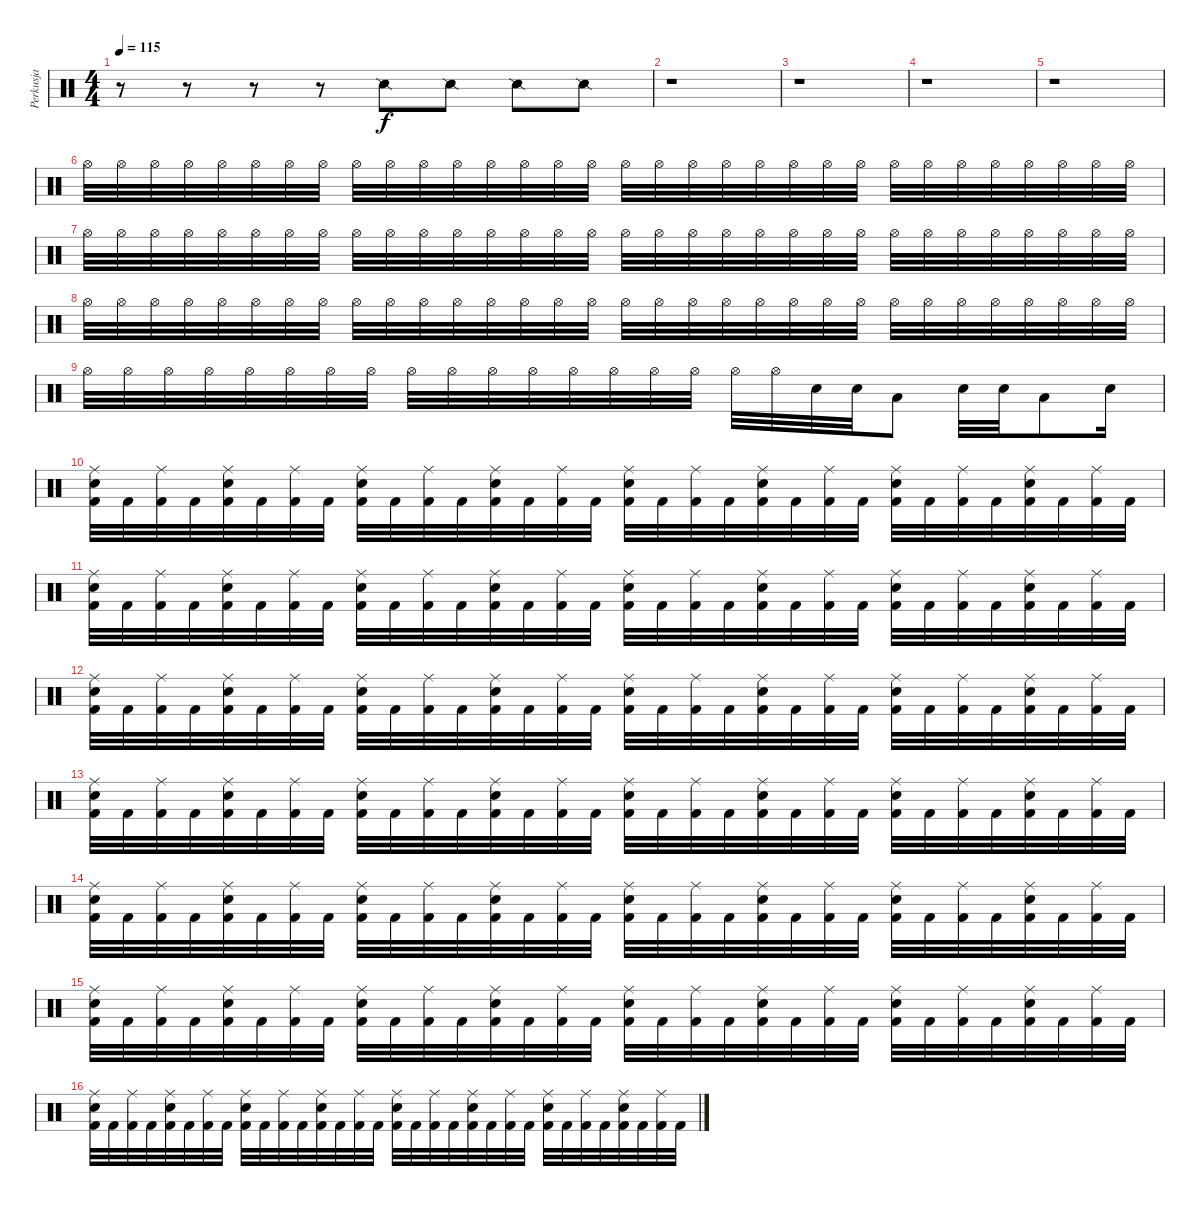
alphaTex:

\track ("Perkusja" "Perkusja") {instrument percussion}
\staff {score}
\articulation defaults
\ts (4 4)
\tempo 115
\clef neutral
\ks c
r.8{dy f} r.8 r.8 r.8 "Snare (side stick) 2".8 "Snare (side stick) 2".8 "Snare (side stick) 2".8 "Snare (side stick) 2".8 |
r.1 |
r.1 |
r.1 |
r.1 |
"Hi-Hat (open)".32 "Hi-Hat (open)".32 "Hi-Hat (open)".32 "Hi-Hat (open)".32 "Hi-Hat (open)".32 "Hi-Hat (open)".32 "Hi-Hat (open)".32 "Hi-Hat (open)".32 "Hi-Hat (open)".32 "Hi-Hat (open)".32 "Hi-Hat (open)".32 "Hi-Hat (open)".32 "Hi-Hat (open)".32 "Hi-Hat (open)".32 "Hi-Hat (open)".32 "Hi-Hat (open)".32 "Hi-Hat (open)".32 "Hi-Hat (open)".32 "Hi-Hat (open)".32 "Hi-Hat (open)".32 "Hi-Hat (open)".32 "Hi-Hat (open)".32 "Hi-Hat (open)".32 "Hi-Hat (open)".32 "Hi-Hat (open)".32 "Hi-Hat (open)".32 "Hi-Hat (open)".32 "Hi-Hat (open)".32 "Hi-Hat (open)".32 "Hi-Hat (open)".32 "Hi-Hat (open)".32 "Hi-Hat (open)".32 |
"Hi-Hat (open)".32 "Hi-Hat (open)".32 "Hi-Hat (open)".32 "Hi-Hat (open)".32 "Hi-Hat (open)".32 "Hi-Hat (open)".32 "Hi-Hat (open)".32 "Hi-Hat (open)".32 "Hi-Hat (open)".32 "Hi-Hat (open)".32 "Hi-Hat (open)".32 "Hi-Hat (open)".32 "Hi-Hat (open)".32 "Hi-Hat (open)".32 "Hi-Hat (open)".32 "Hi-Hat (open)".32 "Hi-Hat (open)".32 "Hi-Hat (open)".32 "Hi-Hat (open)".32 "Hi-Hat (open)".32 "Hi-Hat (open)".32 "Hi-Hat (open)".32 "Hi-Hat (open)".32 "Hi-Hat (open)".32 "Hi-Hat (open)".32 "Hi-Hat (open)".32 "Hi-Hat (open)".32 "Hi-Hat (open)".32 "Hi-Hat (open)".32 "Hi-Hat (open)".32 "Hi-Hat (open)".32 "Hi-Hat (open)".32 |
"Hi-Hat (open)".32 "Hi-Hat (open)".32 "Hi-Hat (open)".32 "Hi-Hat (open)".32 "Hi-Hat (open)".32 "Hi-Hat (open)".32 "Hi-Hat (open)".32 "Hi-Hat (open)".32 "Hi-Hat (open)".32 "Hi-Hat (open)".32 "Hi-Hat (open)".32 "Hi-Hat (open)".32 "Hi-Hat (open)".32 "Hi-Hat (open)".32 "Hi-Hat (open)".32 "Hi-Hat (open)".32 "Hi-Hat (open)".32 "Hi-Hat (open)".32 "Hi-Hat (open)".32 "Hi-Hat (open)".32 "Hi-Hat (open)".32 "Hi-Hat (open)".32 "Hi-Hat (open)".32 "Hi-Hat (open)".32 "Hi-Hat (open)".32 "Hi-Hat (open)".32 "Hi-Hat (open)".32 "Hi-Hat (open)".32 "Hi-Hat (open)".32 "Hi-Hat (open)".32 "Hi-Hat (open)".32 "Hi-Hat (open)".32 |
"Hi-Hat (open)".32 "Hi-Hat (open)".32 "Hi-Hat (open)".32 "Hi-Hat (open)".32 "Hi-Hat (open)".32 "Hi-Hat (open)".32 "Hi-Hat (open)".32 "Hi-Hat (open)".32 "Hi-Hat (open)".32 "Hi-Hat (open)".32 "Hi-Hat (open)".32 "Hi-Hat (open)".32 "Hi-Hat (open)".32 "Hi-Hat (open)".32 "Hi-Hat (open)".32 "Hi-Hat (open)".32 "Hi-Hat (open)".32 "Hi-Hat (open)".32 "Electric Snare (hit)".32 "Electric Snare (hit)".32 "Low Floor Tom (hit)".8 "Electric Snare (hit)".32 "Electric Snare (hit)".32 "Low Floor Tom (hit)".8 "Electric Snare (hit)".16 |
("Ride (middle)" "Electric Snare (hit)" "Kick (hit) 2").32 "Kick (hit) 2".32 ("Ride (middle)" "Kick (hit) 2").32 "Kick (hit) 2".32 ("Ride (middle)" "Electric Snare (hit)" "Kick (hit) 2").32 "Kick (hit) 2".32 ("Ride (middle)" "Kick (hit) 2").32 "Kick (hit) 2".32 ("Ride (middle)" "Electric Snare (hit)" "Kick (hit) 2").32 "Kick (hit) 2".32 ("Ride (middle)" "Kick (hit) 2").32 "Kick (hit) 2".32 ("Ride (middle)" "Electric Snare (hit)" "Kick (hit) 2").32 "Kick (hit) 2".32 ("Ride (middle)" "Kick (hit) 2").32 "Kick (hit) 2".32 ("Ride (middle)" "Electric Snare (hit)" "Kick (hit) 2").32 "Kick (hit) 2".32 ("Ride (middle)" "Kick (hit) 2").32 "Kick (hit) 2".32 ("Ride (middle)" "Electric Snare (hit)" "Kick (hit) 2").32 "Kick (hit) 2".32 ("Ride (middle)" "Kick (hit) 2").32 "Kick (hit) 2".32 ("Ride (middle)" "Electric Snare (hit)" "Kick (hit) 2").32 "Kick (hit) 2".32 ("Ride (middle)" "Kick (hit) 2").32 "Kick (hit) 2".32 ("Ride (middle)" "Electric Snare (hit)" "Kick (hit) 2").32 "Kick (hit) 2".32 ("Ride (middle)" "Kick (hit) 2").32 "Kick (hit) 2".32 |
("Ride (middle)" "Electric Snare (hit)" "Kick (hit) 2").32 "Kick (hit) 2".32 ("Ride (middle)" "Kick (hit) 2").32 "Kick (hit) 2".32 ("Ride (middle)" "Electric Snare (hit)" "Kick (hit) 2").32 "Kick (hit) 2".32 ("Ride (middle)" "Kick (hit) 2").32 "Kick (hit) 2".32 ("Ride (middle)" "Electric Snare (hit)" "Kick (hit) 2").32 "Kick (hit) 2".32 ("Ride (middle)" "Kick (hit) 2").32 "Kick (hit) 2".32 ("Ride (middle)" "Electric Snare (hit)" "Kick (hit) 2").32 "Kick (hit) 2".32 ("Ride (middle)" "Kick (hit) 2").32 "Kick (hit) 2".32 ("Ride (middle)" "Electric Snare (hit)" "Kick (hit) 2").32 "Kick (hit) 2".32 ("Ride (middle)" "Kick (hit) 2").32 "Kick (hit) 2".32 ("Ride (middle)" "Electric Snare (hit)" "Kick (hit) 2").32 "Kick (hit) 2".32 ("Ride (middle)" "Kick (hit) 2").32 "Kick (hit) 2".32 ("Ride (middle)" "Electric Snare (hit)" "Kick (hit) 2").32 "Kick (hit) 2".32 ("Ride (middle)" "Kick (hit) 2").32 "Kick (hit) 2".32 ("Ride (middle)" "Electric Snare (hit)" "Kick (hit) 2").32 "Kick (hit) 2".32 ("Ride (middle)" "Kick (hit) 2").32 "Kick (hit) 2".32 |
("Ride (middle)" "Electric Snare (hit)" "Kick (hit) 2").32 "Kick (hit) 2".32 ("Ride (middle)" "Kick (hit) 2").32 "Kick (hit) 2".32 ("Ride (middle)" "Electric Snare (hit)" "Kick (hit) 2").32 "Kick (hit) 2".32 ("Ride (middle)" "Kick (hit) 2").32 "Kick (hit) 2".32 ("Ride (middle)" "Electric Snare (hit)" "Kick (hit) 2").32 "Kick (hit) 2".32 ("Ride (middle)" "Kick (hit) 2").32 "Kick (hit) 2".32 ("Ride (middle)" "Electric Snare (hit)" "Kick (hit) 2").32 "Kick (hit) 2".32 ("Ride (middle)" "Kick (hit) 2").32 "Kick (hit) 2".32 ("Ride (middle)" "Electric Snare (hit)" "Kick (hit) 2").32 "Kick (hit) 2".32 ("Ride (middle)" "Kick (hit) 2").32 "Kick (hit) 2".32 ("Ride (middle)" "Electric Snare (hit)" "Kick (hit) 2").32 "Kick (hit) 2".32 ("Ride (middle)" "Kick (hit) 2").32 "Kick (hit) 2".32 ("Ride (middle)" "Electric Snare (hit)" "Kick (hit) 2").32 "Kick (hit) 2".32 ("Ride (middle)" "Kick (hit) 2").32 "Kick (hit) 2".32 ("Ride (middle)" "Electric Snare (hit)" "Kick (hit) 2").32 "Kick (hit) 2".32 ("Ride (middle)" "Kick (hit) 2").32 "Kick (hit) 2".32 |
("Ride (middle)" "Electric Snare (hit)" "Kick (hit) 2").32 "Kick (hit) 2".32 ("Ride (middle)" "Kick (hit) 2").32 "Kick (hit) 2".32 ("Ride (middle)" "Electric Snare (hit)" "Kick (hit) 2").32 "Kick (hit) 2".32 ("Ride (middle)" "Kick (hit) 2").32 "Kick (hit) 2".32 ("Ride (middle)" "Electric Snare (hit)" "Kick (hit) 2").32 "Kick (hit) 2".32 ("Ride (middle)" "Kick (hit) 2").32 "Kick (hit) 2".32 ("Ride (middle)" "Electric Snare (hit)" "Kick (hit) 2").32 "Kick (hit) 2".32 ("Ride (middle)" "Kick (hit) 2").32 "Kick (hit) 2".32 ("Ride (middle)" "Electric Snare (hit)" "Kick (hit) 2").32 "Kick (hit) 2".32 ("Ride (middle)" "Kick (hit) 2").32 "Kick (hit) 2".32 ("Ride (middle)" "Electric Snare (hit)" "Kick (hit) 2").32 "Kick (hit) 2".32 ("Ride (middle)" "Kick (hit) 2").32 "Kick (hit) 2".32 ("Ride (middle)" "Electric Snare (hit)" "Kick (hit) 2").32 "Kick (hit) 2".32 ("Ride (middle)" "Kick (hit) 2").32 "Kick (hit) 2".32 ("Ride (middle)" "Electric Snare (hit)" "Kick (hit) 2").32 "Kick (hit) 2".32 ("Ride (middle)" "Kick (hit) 2").32 "Kick (hit) 2".32 |
("Ride (middle)" "Electric Snare (hit)" "Kick (hit) 2").32 "Kick (hit) 2".32 ("Ride (middle)" "Kick (hit) 2").32 "Kick (hit) 2".32 ("Ride (middle)" "Electric Snare (hit)" "Kick (hit) 2").32 "Kick (hit) 2".32 ("Ride (middle)" "Kick (hit) 2").32 "Kick (hit) 2".32 ("Ride (middle)" "Electric Snare (hit)" "Kick (hit) 2").32 "Kick (hit) 2".32 ("Ride (middle)" "Kick (hit) 2").32 "Kick (hit) 2".32 ("Ride (middle)" "Electric Snare (hit)" "Kick (hit) 2").32 "Kick (hit) 2".32 ("Ride (middle)" "Kick (hit) 2").32 "Kick (hit) 2".32 ("Ride (middle)" "Electric Snare (hit)" "Kick (hit) 2").32 "Kick (hit) 2".32 ("Ride (middle)" "Kick (hit) 2").32 "Kick (hit) 2".32 ("Ride (middle)" "Electric Snare (hit)" "Kick (hit) 2").32 "Kick (hit) 2".32 ("Ride (middle)" "Kick (hit) 2").32 "Kick (hit) 2".32 ("Ride (middle)" "Electric Snare (hit)" "Kick (hit) 2").32 "Kick (hit) 2".32 ("Ride (middle)" "Kick (hit) 2").32 "Kick (hit) 2".32 ("Ride (middle)" "Electric Snare (hit)" "Kick (hit) 2").32 "Kick (hit) 2".32 ("Ride (middle)" "Kick (hit) 2").32 "Kick (hit) 2".32 |
("Ride (middle)" "Electric Snare (hit)" "Kick (hit) 2").32 "Kick (hit) 2".32 ("Ride (middle)" "Kick (hit) 2").32 "Kick (hit) 2".32 ("Ride (middle)" "Electric Snare (hit)" "Kick (hit) 2").32 "Kick (hit) 2".32 ("Ride (middle)" "Kick (hit) 2").32 "Kick (hit) 2".32 ("Ride (middle)" "Electric Snare (hit)" "Kick (hit) 2").32 "Kick (hit) 2".32 ("Ride (middle)" "Kick (hit) 2").32 "Kick (hit) 2".32 ("Ride (middle)" "Electric Snare (hit)" "Kick (hit) 2").32 "Kick (hit) 2".32 ("Ride (middle)" "Kick (hit) 2").32 "Kick (hit) 2".32 ("Ride (middle)" "Electric Snare (hit)" "Kick (hit) 2").32 "Kick (hit) 2".32 ("Ride (middle)" "Kick (hit) 2").32 "Kick (hit) 2".32 ("Ride (middle)" "Electric Snare (hit)" "Kick (hit) 2").32 "Kick (hit) 2".32 ("Ride (middle)" "Kick (hit) 2").32 "Kick (hit) 2".32 ("Ride (middle)" "Electric Snare (hit)" "Kick (hit) 2").32 "Kick (hit) 2".32 ("Ride (middle)" "Kick (hit) 2").32 "Kick (hit) 2".32 ("Ride (middle)" "Electric Snare (hit)" "Kick (hit) 2").32 "Kick (hit) 2".32 ("Ride (middle)" "Kick (hit) 2").32 "Kick (hit) 2".32 |
("Ride (middle)" "Electric Snare (hit)" "Kick (hit) 2").32 "Kick (hit) 2".32 ("Ride (middle)" "Kick (hit) 2").32 "Kick (hit) 2".32 ("Ride (middle)" "Electric Snare (hit)" "Kick (hit) 2").32 "Kick (hit) 2".32 ("Ride (middle)" "Kick (hit) 2").32 "Kick (hit) 2".32 ("Ride (middle)" "Electric Snare (hit)" "Kick (hit) 2").32 "Kick (hit) 2".32 ("Ride (middle)" "Kick (hit) 2").32 "Kick (hit) 2".32 ("Ride (middle)" "Electric Snare (hit)" "Kick (hit) 2").32 "Kick (hit) 2".32 ("Ride (middle)" "Kick (hit) 2").32 "Kick (hit) 2".32 ("Ride (middle)" "Electric Snare (hit)" "Kick (hit) 2").32 "Kick (hit) 2".32 ("Ride (middle)" "Kick (hit) 2").32 "Kick (hit) 2".32 ("Ride (middle)" "Electric Snare (hit)" "Kick (hit) 2").32 "Kick (hit) 2".32 ("Ride (middle)" "Kick (hit) 2").32 "Kick (hit) 2".32 ("Ride (middle)" "Electric Snare (hit)" "Kick (hit) 2").32 "Kick (hit) 2".32 ("Ride (middle)" "Kick (hit) 2").32 "Kick (hit) 2".32 ("Ride (middle)" "Electric Snare (hit)" "Kick (hit) 2").32 "Kick (hit) 2".32 ("Ride (middle)" "Kick (hit) 2").32 "Kick (hit) 2".32
